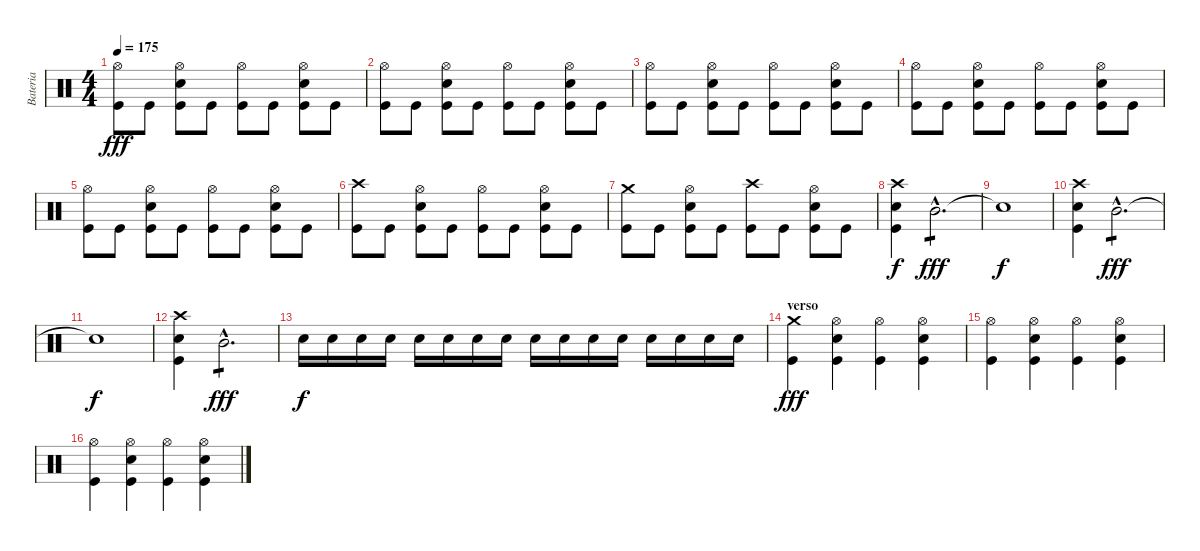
\track ("Bateria" "Bateria") {instrument percussion}
\staff {score}
\articulation defaults
\ts (4 4)
\tempo 175
\clef neutral
\ks c
("Hi-Hat (open)" "Kick (hit)").8{dy fff} "Kick (hit)".8 ("Hi-Hat (open)" "Electric Snare (hit)" "Kick (hit)").8 "Kick (hit)".8 ("Hi-Hat (open)" "Kick (hit)").8 "Kick (hit)".8 ("Hi-Hat (open)" "Electric Snare (hit)" "Kick (hit)").8 "Kick (hit)".8 |
("Hi-Hat (open)" "Kick (hit)").8 "Kick (hit)".8 ("Hi-Hat (open)" "Electric Snare (hit)" "Kick (hit)").8 "Kick (hit)".8 ("Hi-Hat (open)" "Kick (hit)").8 "Kick (hit)".8 ("Hi-Hat (open)" "Electric Snare (hit)" "Kick (hit)").8 "Kick (hit)".8 |
("Hi-Hat (open)" "Kick (hit)").8 "Kick (hit)".8 ("Hi-Hat (open)" "Electric Snare (hit)" "Kick (hit)").8 "Kick (hit)".8 ("Hi-Hat (open)" "Kick (hit)").8 "Kick (hit)".8 ("Hi-Hat (open)" "Electric Snare (hit)" "Kick (hit)").8 "Kick (hit)".8 |
("Hi-Hat (open)" "Kick (hit)").8 "Kick (hit)".8 ("Hi-Hat (open)" "Electric Snare (hit)" "Kick (hit)").8 "Kick (hit)".8 ("Hi-Hat (open)" "Kick (hit)").8 "Kick (hit)".8 ("Hi-Hat (open)" "Electric Snare (hit)" "Kick (hit)").8 "Kick (hit)".8 |
("Hi-Hat (open)" "Kick (hit)").8 "Kick (hit)".8 ("Hi-Hat (open)" "Electric Snare (hit)" "Kick (hit)").8 "Kick (hit)".8 ("Hi-Hat (open)" "Kick (hit)").8 "Kick (hit)".8 ("Hi-Hat (open)" "Electric Snare (hit)" "Kick (hit)").8 "Kick (hit)".8 |
("Crash high (hit)" "Kick (hit)").8 "Kick (hit)".8 ("Hi-Hat (open)" "Electric Snare (hit)" "Kick (hit)").8 "Kick (hit)".8 ("Hi-Hat (open)" "Kick (hit)").8 "Kick (hit)".8 ("Hi-Hat (open)" "Electric Snare (hit)" "Kick (hit)").8 "Kick (hit)".8 |
("Crash medium (hit)" "Kick (hit)").8 "Kick (hit)".8 ("Hi-Hat (open)" "Electric Snare (hit)" "Kick (hit)").8 "Kick (hit)".8 ("Crash high (hit)" "Kick (hit)").8 "Kick (hit)".8 ("Hi-Hat (open)" "Electric Snare (hit)" "Kick (hit)").8 "Kick (hit)".8 |
("Crash high (hit)" "Electric Snare (hit)" "Kick (hit)").4{dy f} "Mid Tom (hit)"{hac}.2{d tp 1 dy fff} |
"Snare (hit)"{t}.1{dy f} |
("Crash high (hit)" "Electric Snare (hit)" "Kick (hit)").4 "Mid Tom (hit)"{hac}.2{d tp 1 dy fff} |
"Snare (hit)"{t}.1{dy f} |
("Crash high (hit)" "Electric Snare (hit)" "Kick (hit)").4 "Mid Tom (hit)"{hac}.2{d tp 1 dy fff} |
"Electric Snare (hit)".16{dy f} "Electric Snare (hit)".16 "Electric Snare (hit)".16 "Electric Snare (hit)".16 "Electric Snare (hit)".16 "Electric Snare (hit)".16 "Electric Snare (hit)".16 "Electric Snare (hit)".16 "Electric Snare (hit)".16 "Electric Snare (hit)".16 "Electric Snare (hit)".16 "Electric Snare (hit)".16 "Electric Snare (hit)".16 "Electric Snare (hit)".16 "Electric Snare (hit)".16 "Electric Snare (hit)".16 |
\section ("" "verso")
("Crash medium (hit)" "Kick (hit)").4{dy fff} ("Hi-Hat (open)" "Electric Snare (hit)" "Kick (hit)").4 ("Hi-Hat (open)" "Kick (hit)").4 ("Hi-Hat (open)" "Electric Snare (hit)" "Kick (hit)").4 |
("Hi-Hat (open)" "Kick (hit)").4 ("Hi-Hat (open)" "Electric Snare (hit)" "Kick (hit)").4 ("Hi-Hat (open)" "Kick (hit)").4 ("Hi-Hat (open)" "Electric Snare (hit)" "Kick (hit)").4 |
("Hi-Hat (open)" "Kick (hit)").4 ("Hi-Hat (open)" "Electric Snare (hit)" "Kick (hit)").4 ("Hi-Hat (open)" "Kick (hit)").4 ("Hi-Hat (open)" "Electric Snare (hit)" "Kick (hit)").4
